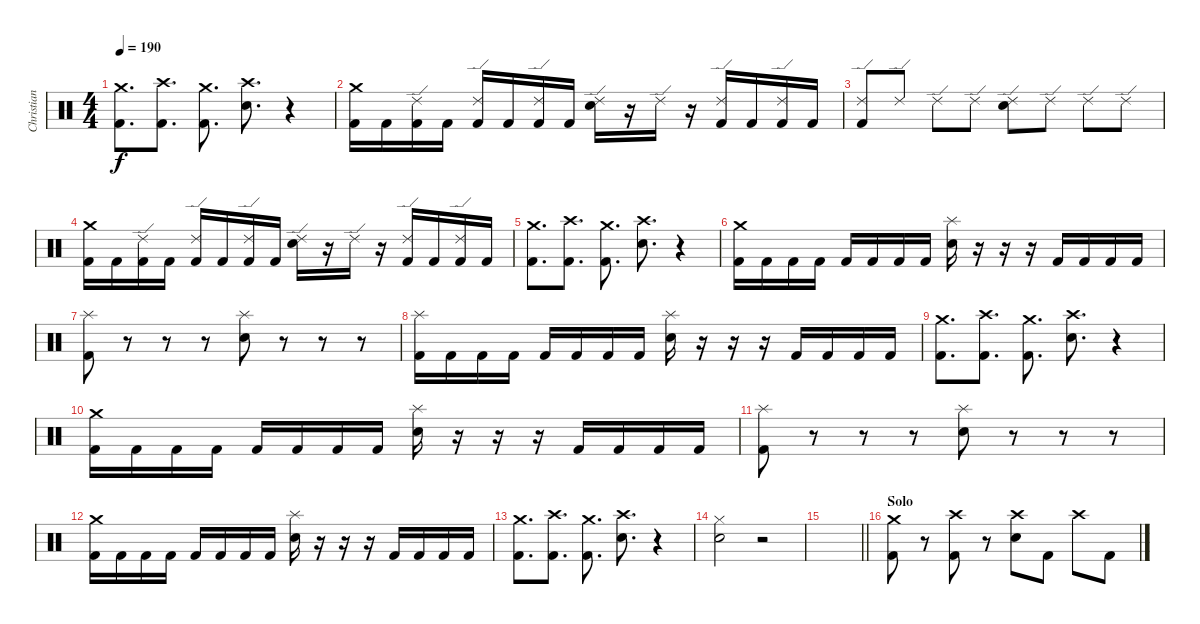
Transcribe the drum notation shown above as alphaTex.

\track ("Christian" "Christian") {instrument percussion}
\staff {score}
\articulation defaults
\ts (4 4)
\tempo 190
\clef neutral
\ks c
("Crash medium (hit)" "Kick (hit) 2").8{d dy f} ("Crash high (hit)" "Kick (hit) 2").8{d} ("Crash medium (hit)" "Kick (hit) 2").8{d} ("Crash high (hit)" "Electric Snare (hit)").8{d} r.4 |
("Crash medium (hit)" "Kick (hit) 2").16 "Kick (hit) 2".16 ("Ride (edge) 2" "Kick (hit) 2").16 "Kick (hit) 2".16 ("Ride (edge) 2" "Kick (hit) 2").16 "Kick (hit) 2".16 ("Ride (edge) 2" "Kick (hit) 2").16 "Kick (hit) 2".16 ("Ride (edge) 2" "Electric Snare (hit)").16 r.16 "Ride (edge) 2".16 r.16 ("Ride (edge) 2" "Kick (hit) 2").16 "Kick (hit) 2".16 ("Ride (edge) 2" "Kick (hit) 2").16 "Kick (hit) 2".16 |
("Ride (edge) 2" "Kick (hit) 2").8 "Ride (edge) 2".8 "Ride (edge) 2".8 "Ride (edge) 2".8 ("Ride (edge) 2" "Electric Snare (hit)").8 "Ride (edge) 2".8 "Ride (edge) 2".8 "Ride (edge) 2".8 |
("Crash medium (hit)" "Kick (hit) 2").16 "Kick (hit) 2".16 ("Ride (edge) 2" "Kick (hit) 2").16 "Kick (hit) 2".16 ("Ride (edge) 2" "Kick (hit) 2").16 "Kick (hit) 2".16 ("Ride (edge) 2" "Kick (hit) 2").16 "Kick (hit) 2".16 ("Ride (edge) 2" "Electric Snare (hit)").16 r.16 "Ride (edge) 2".16 r.16 ("Ride (edge) 2" "Kick (hit) 2").16 "Kick (hit) 2".16 ("Ride (edge) 2" "Kick (hit) 2").16 "Kick (hit) 2".16 |
("Crash medium (hit)" "Kick (hit) 2").8{d} ("Crash high (hit)" "Kick (hit) 2").8{d} ("Crash medium (hit)" "Kick (hit) 2").8{d} ("Crash high (hit)" "Electric Snare (hit)").8{d} r.4 |
("Crash medium (hit)" "Kick (hit) 2").16 "Kick (hit) 2".16 "Kick (hit) 2".16 "Kick (hit) 2".16 "Kick (hit) 2".16 "Kick (hit) 2".16 "Kick (hit) 2".16 "Kick (hit) 2".16 ("Splash (hit)" "Electric Snare (hit)").16 r.16 r.16 r.16 "Kick (hit) 2".16 "Kick (hit) 2".16 "Kick (hit) 2".16 "Kick (hit) 2".16 |
("Splash (hit)" "Kick (hit) 2").8 r.8 r.8 r.8 ("Splash (hit)" "Electric Snare (hit)").8 r.8 r.8 r.8 |
("Splash (hit)" "Kick (hit) 2").16 "Kick (hit) 2".16 "Kick (hit) 2".16 "Kick (hit) 2".16 "Kick (hit) 2".16 "Kick (hit) 2".16 "Kick (hit) 2".16 "Kick (hit) 2".16 ("Splash (hit)" "Electric Snare (hit)").16 r.16 r.16 r.16 "Kick (hit) 2".16 "Kick (hit) 2".16 "Kick (hit) 2".16 "Kick (hit) 2".16 |
("Crash medium (hit)" "Kick (hit) 2").8{d} ("Crash high (hit)" "Kick (hit) 2").8{d} ("Crash medium (hit)" "Kick (hit) 2").8{d} ("Crash high (hit)" "Electric Snare (hit)").8{d} r.4 |
("Crash medium (hit)" "Kick (hit) 2").16 "Kick (hit) 2".16 "Kick (hit) 2".16 "Kick (hit) 2".16 "Kick (hit) 2".16 "Kick (hit) 2".16 "Kick (hit) 2".16 "Kick (hit) 2".16 ("Splash (hit)" "Electric Snare (hit)").16 r.16 r.16 r.16 "Kick (hit) 2".16 "Kick (hit) 2".16 "Kick (hit) 2".16 "Kick (hit) 2".16 |
("Splash (hit)" "Kick (hit) 2").8 r.8 r.8 r.8 ("Splash (hit)" "Electric Snare (hit)").8 r.8 r.8 r.8 |
("Crash medium (hit)" "Kick (hit) 2").16 "Kick (hit) 2".16 "Kick (hit) 2".16 "Kick (hit) 2".16 "Kick (hit) 2".16 "Kick (hit) 2".16 "Kick (hit) 2".16 "Kick (hit) 2".16 ("Splash (hit)" "Electric Snare (hit)").16 r.16 r.16 r.16 "Kick (hit) 2".16 "Kick (hit) 2".16 "Kick (hit) 2".16 "Kick (hit) 2".16 |
("Crash medium (hit)" "Kick (hit) 2").8{d} ("Crash high (hit)" "Kick (hit) 2").8{d} ("Crash medium (hit)" "Kick (hit) 2").8{d} ("Crash high (hit)" "Electric Snare (hit)").8{d} r.4 |
("Hi-Hat (closed)" "Electric Snare (hit)").2 r.2 |
\barLineRight lightlight
|
\section ("" "Solo")
("Crash medium (hit)" "Kick (hit) 2").8 r.8 ("Crash high (hit)" "Kick (hit) 2").8 r.8 ("Crash high (hit)" "Electric Snare (hit)").8 "Kick (hit) 2".8 "Crash high (hit)".8 "Kick (hit) 2".8
